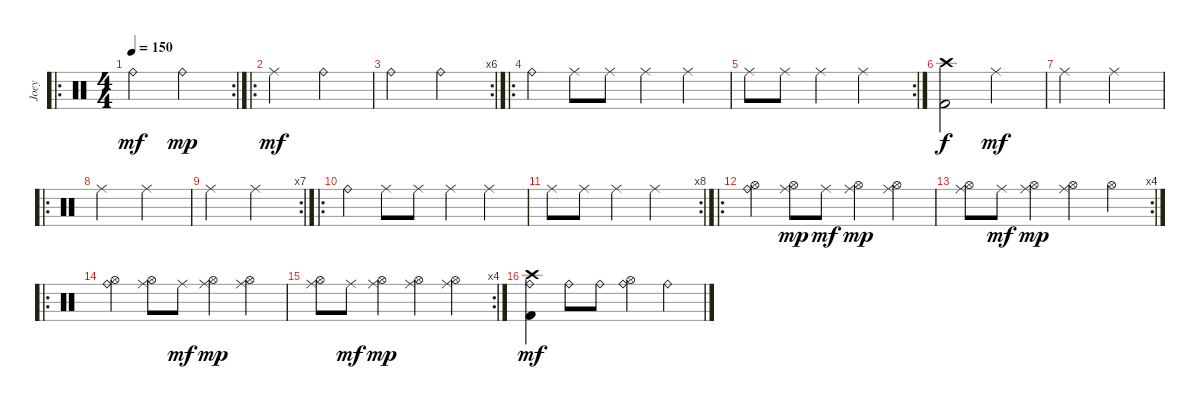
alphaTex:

\track ("Joey" "Joey") {instrument percussion}
\staff {score}
\articulation defaults
\ro
\rc 2
\ts (4 4)
\tempo 150
\clef neutral
\ks c "Ride (bell)".2{dy mf volume 13} "Ride (bell)".2{dy mp}
|
\ro "Ride (middle)".2{dy mf} "Ride (bell)".2
|
\rc 6 "Ride (bell)".2 "Ride (bell)".2
|
\ro "Ride (bell)".4 "Ride (middle)".8 "Ride (middle)".8 "Ride (middle)".4 "Ride (middle)".4
|
\rc 2 "Ride (middle)".8 "Ride (middle)".8 "Ride (middle)".4 "Ride (middle)".2
|
("Crash high (hit)" "Kick (hit) 2").2{dy f} "Ride (middle)".2{dy mf} |
"Ride (middle)".2 "Ride (middle)".2 |
\ro "Ride (middle)".2 "Ride (middle)".2
|
\rc 7 "Ride (middle)".2 "Ride (middle)".2
|
\ro "Ride (bell)".4 "Ride (middle)".8 "Ride (middle)".8 "Ride (middle)".4 "Ride (middle)".4
|
\rc 8 "Ride (middle)".8 "Ride (middle)".8 "Ride (middle)".4 "Ride (middle)".2
|
\ro
("Ride (bell)" "Hi-Hat (open)").4 ("Ride (middle)" "Hi-Hat (open)").8{dy mp} "Ride (middle)".8{dy mf} ("Ride (middle)" "Hi-Hat (open)").4{dy mp} ("Ride (middle)" "Hi-Hat (open)").4 |
\rc 4
("Ride (middle)" "Hi-Hat (open)").8 "Ride (middle)".8{dy mf} ("Ride (middle)" "Hi-Hat (open)").4{dy mp} ("Ride (middle)" "Hi-Hat (open)").4 "Hi-Hat (open)".4 |
\ro
("Ride (bell)" "Hi-Hat (open)").4 ("Ride (middle)" "Hi-Hat (open)").8 "Ride (middle)".8{dy mf} ("Ride (middle)" "Hi-Hat (open)").4{dy mp} ("Ride (middle)" "Hi-Hat (open)").4 |
\rc 4
("Ride (middle)" "Hi-Hat (open)").8 "Ride (middle)".8{dy mf} ("Ride (middle)" "Hi-Hat (open)").4{dy mp} ("Ride (middle)" "Hi-Hat (open)").4 ("Ride (middle)" "Hi-Hat (open)").4 |
("Crash high (hit)" "Ride (bell)" "Kick (hit) 2").4{dy mf} "Ride (bell)".8 "Ride (bell)".8 ("Ride (bell)" "Hi-Hat (open)").4 "Ride (bell)".4
